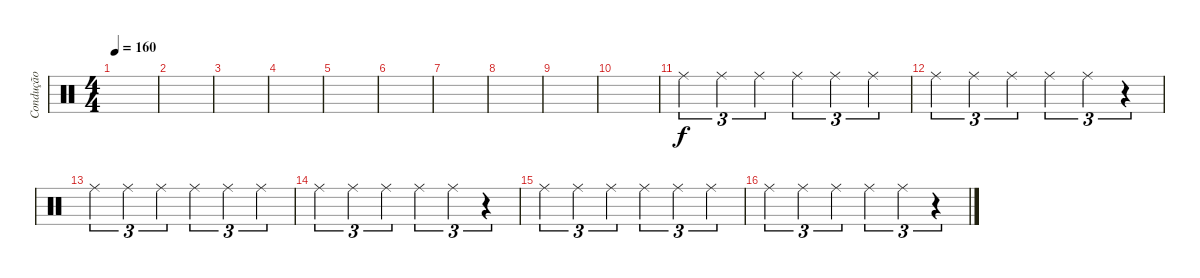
\track ("Condução" "Condução") {instrument percussion}
\staff {score}
\articulation defaults
\ts (4 4)
\tempo 160
\clef neutral
\ks c
|
|
|
|
|
|
|
|
|
|
"Ride (middle)".4{tu (3 2)} "Ride (middle)".4{tu (3 2)} "Ride (middle)".4{tu (3 2)} "Ride (middle)".4{tu (3 2)} "Ride (middle)".4{tu (3 2)} "Ride (middle)".4{tu (3 2)} |
"Ride (middle)".4{tu (3 2)} "Ride (middle)".4{tu (3 2)} "Ride (middle)".4{tu (3 2)} "Ride (middle)".4{tu (3 2)} "Ride (middle)".4{tu (3 2)} r.4{tu (3 2)} |
"Ride (middle)".4{tu (3 2)} "Ride (middle)".4{tu (3 2)} "Ride (middle)".4{tu (3 2)} "Ride (middle)".4{tu (3 2)} "Ride (middle)".4{tu (3 2)} "Ride (middle)".4{tu (3 2)} |
"Ride (middle)".4{tu (3 2)} "Ride (middle)".4{tu (3 2)} "Ride (middle)".4{tu (3 2)} "Ride (middle)".4{tu (3 2)} "Ride (middle)".4{tu (3 2)} r.4{tu (3 2)} |
"Ride (middle)".4{tu (3 2)} "Ride (middle)".4{tu (3 2)} "Ride (middle)".4{tu (3 2)} "Ride (middle)".4{tu (3 2)} "Ride (middle)".4{tu (3 2)} "Ride (middle)".4{tu (3 2)} |
"Ride (middle)".4{tu (3 2)} "Ride (middle)".4{tu (3 2)} "Ride (middle)".4{tu (3 2)} "Ride (middle)".4{tu (3 2)} "Ride (middle)".4{tu (3 2)} r.4{tu (3 2)}
